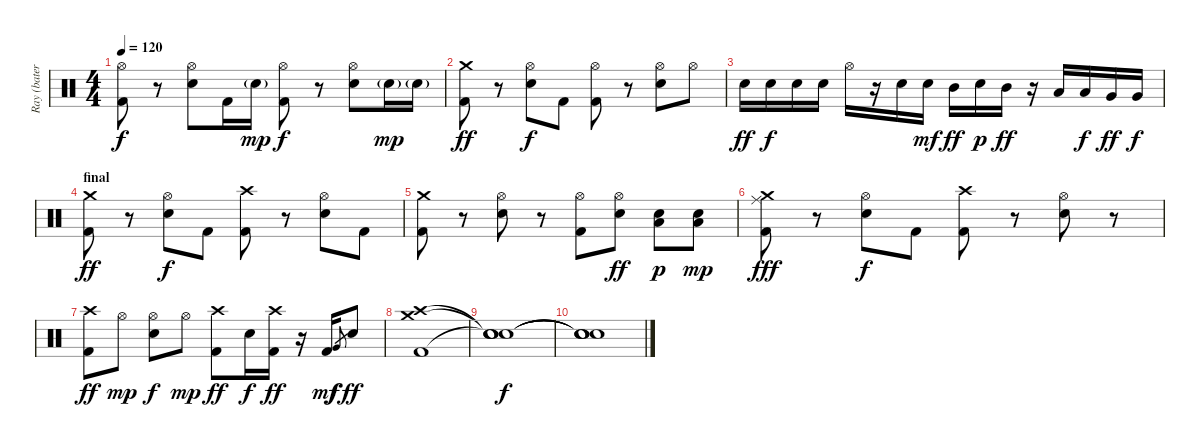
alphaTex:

\track ("Ray (batería)" "Ray (bater") {instrument percussion}
\staff {score}
\articulation defaults
\ts (4 4)
\tempo 120
\clef neutral
\ks c
("Hi-Hat (open)" "Kick (hit) 2").8{dy f} r.8 ("Hi-Hat (open)" "Snare (hit) 2").8 "Kick (hit) 2".16 "Snare (hit) 2"{g}.16{dy mp} ("Hi-Hat (open)" "Kick (hit) 2").8{dy f} r.8 ("Hi-Hat (open)" "Snare (hit) 2").8 "Snare (hit) 2"{g}.16{dy mp} "Snare (hit) 2"{g}.16 |
("Crash medium (hit)" "Kick (hit) 2").8{dy ff} r.8 ("Hi-Hat (open)" "Snare (hit) 2").8{dy f} "Kick (hit) 2".8 ("Hi-Hat (open)" "Kick (hit) 2").8 r.8 ("Hi-Hat (open)" "Snare (hit) 2").8 "Hi-Hat (open)".8 |
"Snare (hit) 2".16{dy ff} "Snare (hit) 2".16{dy f} "Snare (hit) 2".16 "Snare (hit) 2".16 "Hi-Hat (open)".16 r.16 "Snare (hit) 2".16 "Snare (hit) 2".16{dy mf} "Mid Tom (hit)".16{dy ff} "Snare (hit) 2".16{dy p} "Mid Tom (hit)".16{dy ff} r.16 "Low Tom (hit)".16 "Low Tom (hit)".16{dy f} "Very Low Tom (hit)".16{dy ff} "Very Low Tom (hit)".16{dy f} |
\section ("" "final")
("Crash medium (hit)" "Kick (hit) 2").8{dy ff} r.8 ("Hi-Hat (open)" "Snare (hit) 2").8{dy f} "Kick (hit) 2".8 ("Crash high (hit)" "Kick (hit) 2").8 r.8 ("Hi-Hat (open)" "Snare (hit) 2").8 "Kick (hit) 2".8 |
("Crash medium (hit)" "Kick (hit) 2").8 r.8 ("Hi-Hat (open)" "Snare (hit) 2").8 r.8 ("Hi-Hat (open)" "Kick (hit) 2").8 ("Hi-Hat (open)" "Snare (hit) 2").8{dy ff} ("Snare (hit) 2" "Low Tom (hit)").8{dy p} ("Snare (hit) 2" "Low Tom (hit)").8{dy mp} |
("Crash medium (hit)" "Ride (middle)" "Kick (hit) 2").8{dy fff} r.8 ("Hi-Hat (open)" "Snare (hit) 2").8{dy f} "Kick (hit) 2".8 ("Crash high (hit)" "Kick (hit) 2").8 r.8 ("Hi-Hat (open)" "Snare (hit) 2").8 r.8 |
("Crash high (hit)" "Kick (hit) 2").8{dy ff} "Hi-Hat (open)".8{dy mp} ("Hi-Hat (open)" "Snare (hit) 2").8{dy f} "Hi-Hat (open)".8{dy mp} ("Crash high (hit)" "Kick (hit) 2").8{dy ff} "Snare (hit) 2".16{dy f} ("Crash high (hit)" "Kick (hit) 2").16{dy ff} r.16 "Kick (hit) 2".16{dy mf} "Very Low Tom (hit)".8{gr dy f} "Snare (hit) 2".8{dy ff} |
("Crash high (hit)" "Crash medium (hit)" "Kick (hit) 2").1 |
("Snare (hit)"{t} "Snare (hit)"{t} "Snare (hit)"{t} "Snare (hit)").1{dy f} |
("Snare (hit)"{t} "Snare (hit)"{t} "Snare (hit)"{t} "Snare (hit)"{t}).1
